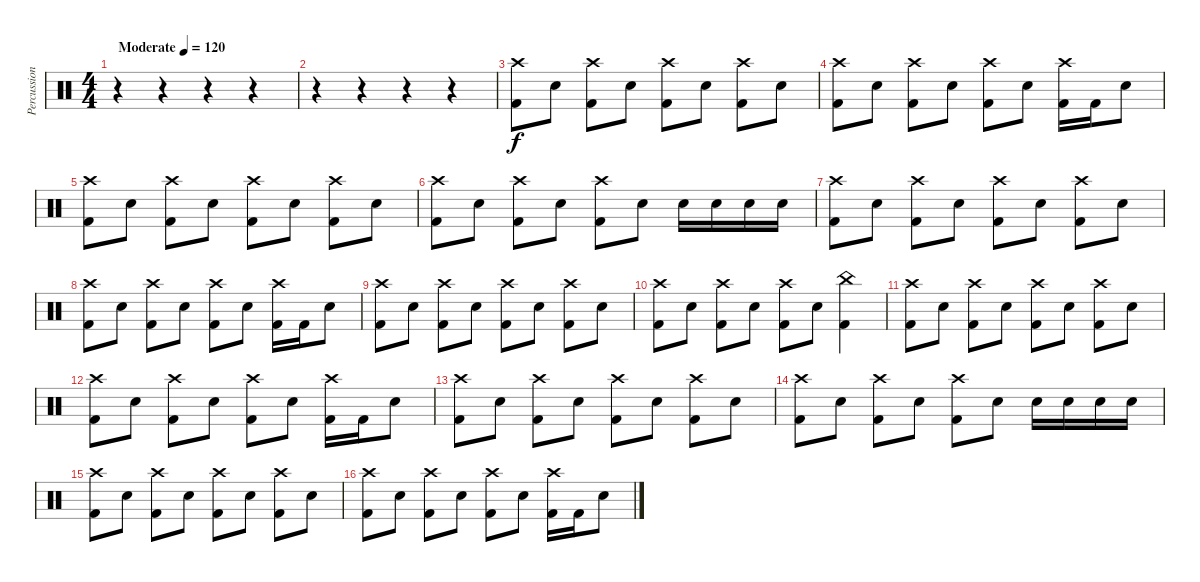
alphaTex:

\track ("Percussion" "Percussion") {instrument percussion}
\staff {score}
\articulation defaults
\ts (4 4)
\tempo (120 "Moderate")
\tempo 230
\tempo (120 "Moderate")
\clef neutral
\ks c
r.4{dy f} r.4 r.4 r.4 |
r.4 r.4 r.4 r.4 |
("Crash high (hit)" "Kick (hit) 2").8 "Electric Snare (hit)".8 ("Crash high (hit)" "Kick (hit) 2").8 "Electric Snare (hit)".8 ("Crash high (hit)" "Kick (hit) 2").8 "Electric Snare (hit)".8 ("Crash high (hit)" "Kick (hit) 2").8 "Electric Snare (hit)".8 |
("Crash high (hit)" "Kick (hit) 2").8 "Electric Snare (hit)".8 ("Crash high (hit)" "Kick (hit) 2").8 "Electric Snare (hit)".8 ("Crash high (hit)" "Kick (hit) 2").8 "Electric Snare (hit)".8 ("Crash high (hit)" "Kick (hit) 2").16 "Kick (hit) 2".16 "Electric Snare (hit)".8 |
("Crash high (hit)" "Kick (hit) 2").8 "Electric Snare (hit)".8 ("Crash high (hit)" "Kick (hit) 2").8 "Electric Snare (hit)".8 ("Crash high (hit)" "Kick (hit) 2").8 "Electric Snare (hit)".8 ("Crash high (hit)" "Kick (hit) 2").8 "Electric Snare (hit)".8 |
("Crash high (hit)" "Kick (hit) 2").8 "Electric Snare (hit)".8 ("Crash high (hit)" "Kick (hit) 2").8 "Electric Snare (hit)".8 ("Crash high (hit)" "Kick (hit) 2").8 "Electric Snare (hit)".8 "Electric Snare (hit)".16 "Electric Snare (hit)".16 "Electric Snare (hit)".16 "Electric Snare (hit)".16 |
("Crash high (hit)" "Kick (hit) 2").8 "Electric Snare (hit)".8 ("Crash high (hit)" "Kick (hit) 2").8 "Electric Snare (hit)".8 ("Crash high (hit)" "Kick (hit) 2").8 "Electric Snare (hit)".8 ("Crash high (hit)" "Kick (hit) 2").8 "Electric Snare (hit)".8 |
("Crash high (hit)" "Kick (hit) 2").8 "Electric Snare (hit)".8 ("Crash high (hit)" "Kick (hit) 2").8 "Electric Snare (hit)".8 ("Crash high (hit)" "Kick (hit) 2").8 "Electric Snare (hit)".8 ("Crash high (hit)" "Kick (hit) 2").16 "Kick (hit) 2".16 "Electric Snare (hit)".8 |
("Crash high (hit)" "Kick (hit) 2").8 "Electric Snare (hit)".8 ("Crash high (hit)" "Kick (hit) 2").8 "Electric Snare (hit)".8 ("Crash high (hit)" "Kick (hit) 2").8 "Electric Snare (hit)".8 ("Crash high (hit)" "Kick (hit) 2").8 "Electric Snare (hit)".8 |
("Crash high (hit)" "Kick (hit) 2").8 "Electric Snare (hit)".8 ("Crash high (hit)" "Kick (hit) 2").8 "Electric Snare (hit)".8 ("Crash high (hit)" "Kick (hit) 2").8 "Electric Snare (hit)".8 ("China (hit)" "Kick (hit) 2").4 |
("Crash high (hit)" "Kick (hit) 2").8 "Electric Snare (hit)".8 ("Crash high (hit)" "Kick (hit) 2").8 "Electric Snare (hit)".8 ("Crash high (hit)" "Kick (hit) 2").8 "Electric Snare (hit)".8 ("Crash high (hit)" "Kick (hit) 2").8 "Electric Snare (hit)".8 |
("Crash high (hit)" "Kick (hit) 2").8 "Electric Snare (hit)".8 ("Crash high (hit)" "Kick (hit) 2").8 "Electric Snare (hit)".8 ("Crash high (hit)" "Kick (hit) 2").8 "Electric Snare (hit)".8 ("Crash high (hit)" "Kick (hit) 2").16 "Kick (hit) 2".16 "Electric Snare (hit)".8 |
("Crash high (hit)" "Kick (hit) 2").8 "Electric Snare (hit)".8 ("Crash high (hit)" "Kick (hit) 2").8 "Electric Snare (hit)".8 ("Crash high (hit)" "Kick (hit) 2").8 "Electric Snare (hit)".8 ("Crash high (hit)" "Kick (hit) 2").8 "Electric Snare (hit)".8 |
("Crash high (hit)" "Kick (hit) 2").8 "Electric Snare (hit)".8 ("Crash high (hit)" "Kick (hit) 2").8 "Electric Snare (hit)".8 ("Crash high (hit)" "Kick (hit) 2").8 "Electric Snare (hit)".8 "Electric Snare (hit)".16 "Electric Snare (hit)".16 "Electric Snare (hit)".16 "Electric Snare (hit)".16 |
("Crash high (hit)" "Kick (hit) 2").8 "Electric Snare (hit)".8 ("Crash high (hit)" "Kick (hit) 2").8 "Electric Snare (hit)".8 ("Crash high (hit)" "Kick (hit) 2").8 "Electric Snare (hit)".8 ("Crash high (hit)" "Kick (hit) 2").8 "Electric Snare (hit)".8 |
("Crash high (hit)" "Kick (hit) 2").8 "Electric Snare (hit)".8 ("Crash high (hit)" "Kick (hit) 2").8 "Electric Snare (hit)".8 ("Crash high (hit)" "Kick (hit) 2").8 "Electric Snare (hit)".8 ("Crash high (hit)" "Kick (hit) 2").16 "Kick (hit) 2".16 "Electric Snare (hit)".8
